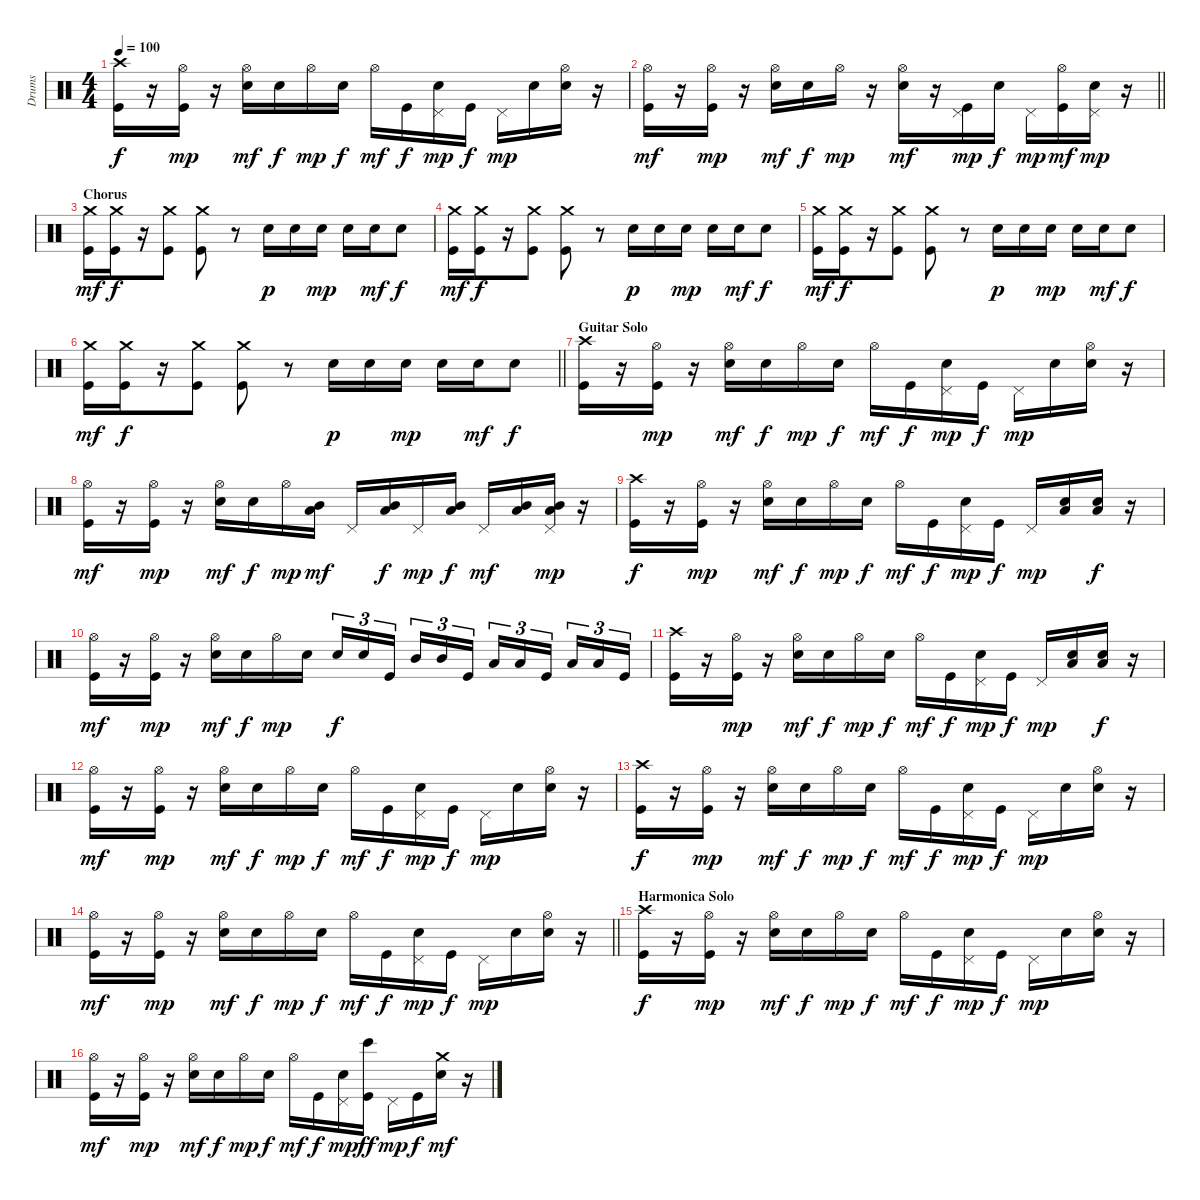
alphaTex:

\track ("Drums" "Drums") {instrument percussion}
\staff {score}
\articulation defaults
\ts (4 4)
\tempo 100
\clef neutral
\ks c
("Crash high (hit)" "Kick (hit)").16{dy f} r.16 ("Hi-Hat (open)" "Kick (hit)").16{dy mp} r.16 ("Hi-Hat (open)" "Snare (hit) 2").16{dy mf} "Snare (hit) 2".16{dy f} "Hi-Hat (open)".16{dy mp} "Snare (hit) 2".16{dy f} "Hi-Hat (open)".16{dy mf} "Kick (hit)".16{dy f} ("Pedal Hi-Hat (hit)" "Snare (hit) 2").16{dy mp} "Kick (hit)".16{dy f} "Pedal Hi-Hat (hit)".16{dy mp} "Snare (hit) 2".16 ("Hi-Hat (open)" "Snare (hit) 2").16 r.16 |
\barLineRight lightlight
("Hi-Hat (open)" "Kick (hit)").16{dy mf} r.16 ("Hi-Hat (open)" "Kick (hit)").16{dy mp} r.16 ("Hi-Hat (open)" "Snare (hit) 2").16{dy mf} "Snare (hit) 2".16{dy f} "Hi-Hat (open)".16{dy mp} r.16 ("Hi-Hat (open)" "Snare (hit) 2").16{dy mf} r.16 ("Pedal Hi-Hat (hit)" "Kick (hit)").16{dy mp} "Snare (hit) 2".16{dy f} "Pedal Hi-Hat (hit)".16{dy mp} ("Hi-Hat (open)" "Kick (hit)").16{dy mf} ("Pedal Hi-Hat (hit)" "Snare (hit) 2").16{dy mp} r.16 |
\section ("" "Chorus")
("Crash medium (hit)" "Kick (hit)").16{dy mf} ("Crash medium (hit)" "Kick (hit)").16{dy f} r.16 ("Crash medium (hit)" "Kick (hit)").8 ("Crash medium (hit)" "Kick (hit)").8 r.8 "Snare (hit) 2".16{dy p} "Snare (hit) 2".16 "Snare (hit) 2".16{dy mp} "Snare (hit) 2".16 "Snare (hit) 2".16{dy mf} "Snare (hit) 2".8{dy f} |
("Crash medium (hit)" "Kick (hit)").16{dy mf} ("Crash medium (hit)" "Kick (hit)").16{dy f} r.16 ("Crash medium (hit)" "Kick (hit)").8 ("Crash medium (hit)" "Kick (hit)").8 r.8 "Snare (hit) 2".16{dy p} "Snare (hit) 2".16 "Snare (hit) 2".16{dy mp} "Snare (hit) 2".16 "Snare (hit) 2".16{dy mf} "Snare (hit) 2".8{dy f} |
("Crash medium (hit)" "Kick (hit)").16{dy mf} ("Crash medium (hit)" "Kick (hit)").16{dy f} r.16 ("Crash medium (hit)" "Kick (hit)").8 ("Crash medium (hit)" "Kick (hit)").8 r.8 "Snare (hit) 2".16{dy p} "Snare (hit) 2".16 "Snare (hit) 2".16{dy mp} "Snare (hit) 2".16 "Snare (hit) 2".16{dy mf} "Snare (hit) 2".8{dy f} |
\barLineRight lightlight
("Crash medium (hit)" "Kick (hit)").16{dy mf} ("Crash medium (hit)" "Kick (hit)").16{dy f} r.16 ("Crash medium (hit)" "Kick (hit)").8 ("Crash medium (hit)" "Kick (hit)").8 r.8 "Snare (hit) 2".16{dy p} "Snare (hit) 2".16 "Snare (hit) 2".16{dy mp} "Snare (hit) 2".16 "Snare (hit) 2".16{dy mf} "Snare (hit) 2".8{dy f} |
\section ("" "Guitar Solo")
("Crash high (hit)" "Kick (hit)").16 r.16 ("Hi-Hat (open)" "Kick (hit)").16{dy mp} r.16 ("Hi-Hat (open)" "Snare (hit) 2").16{dy mf} "Snare (hit) 2".16{dy f} "Hi-Hat (open)".16{dy mp} "Snare (hit) 2".16{dy f} "Hi-Hat (open)".16{dy mf} "Kick (hit)".16{dy f} ("Pedal Hi-Hat (hit)" "Snare (hit) 2").16{dy mp} "Kick (hit)".16{dy f} "Pedal Hi-Hat (hit)".16{dy mp} "Snare (hit) 2".16 ("Hi-Hat (open)" "Snare (hit) 2").16 r.16 |
("Hi-Hat (open)" "Kick (hit)").16{dy mf} r.16 ("Hi-Hat (open)" "Kick (hit)").16{dy mp} r.16 ("Hi-Hat (open)" "Snare (hit) 2").16{dy mf} "Snare (hit) 2".16{dy f} "Hi-Hat (open)".16{dy mp} ("Low Tom (hit)" "Mid Tom (hit)").16{dy mf} "Pedal Hi-Hat (hit)".16 ("Low Tom (hit)" "Mid Tom (hit)").16{dy f} "Pedal Hi-Hat (hit)".16{dy mp} ("Low Tom (hit)" "Mid Tom (hit)").16{dy f} "Pedal Hi-Hat (hit)".16{dy mf} ("Low Tom (hit)" "Mid Tom (hit)").16 ("Pedal Hi-Hat (hit)" "Low Tom (hit)" "Mid Tom (hit)").16{dy mp} r.16 |
("Crash high (hit)" "Kick (hit)").16{dy f} r.16 ("Hi-Hat (open)" "Kick (hit)").16{dy mp} r.16 ("Hi-Hat (open)" "Snare (hit) 2").16{dy mf} "Snare (hit) 2".16{dy f} "Hi-Hat (open)".16{dy mp} "Snare (hit) 2".16{dy f} "Hi-Hat (open)".16{dy mf} "Kick (hit)".16{dy f} ("Pedal Hi-Hat (hit)" "Snare (hit) 2").16{dy mp} "Kick (hit)".16{dy f} "Pedal Hi-Hat (hit)".16{dy mp} ("Low Tom (hit)" "Snare (hit) 2").16 ("Low Tom (hit)" "Snare (hit) 2").16{dy f} r.16 |
("Hi-Hat (open)" "Kick (hit)").16{dy mf} r.16 ("Hi-Hat (open)" "Kick (hit)").16{dy mp} r.16 ("Hi-Hat (open)" "Snare (hit) 2").16{dy mf} "Snare (hit) 2".16{dy f} "Hi-Hat (open)".16{dy mp} "Snare (hit) 2".16 "Snare (hit) 2".16{tu (3 2) dy f} "Snare (hit) 2".16{tu (3 2)} "Kick (hit)".16{tu (3 2) beam splitsecondary} "Mid Tom (hit)".16{tu (3 2)} "Mid Tom (hit)".16{tu (3 2)} "Kick (hit)".16{tu (3 2)} "Low Tom (hit)".16{tu (3 2)} "Low Tom (hit)".16{tu (3 2)} "Kick (hit)".16{tu (3 2) beam splitsecondary} "Low Tom (hit)".16{tu (3 2)} "Low Tom (hit)".16{tu (3 2)} "Kick (hit)".16{tu (3 2)} |
("Crash high (hit)" "Kick (hit)").16 r.16 ("Hi-Hat (open)" "Kick (hit)").16{dy mp} r.16 ("Hi-Hat (open)" "Snare (hit) 2").16{dy mf} "Snare (hit) 2".16{dy f} "Hi-Hat (open)".16{dy mp} "Snare (hit) 2".16{dy f} "Hi-Hat (open)".16{dy mf} "Kick (hit)".16{dy f} ("Pedal Hi-Hat (hit)" "Snare (hit) 2").16{dy mp} "Kick (hit)".16{dy f} "Pedal Hi-Hat (hit)".16{dy mp} ("Low Tom (hit)" "Snare (hit) 2").16 ("Low Tom (hit)" "Snare (hit) 2").16{dy f} r.16 |
("Hi-Hat (open)" "Kick (hit)").16{dy mf} r.16 ("Hi-Hat (open)" "Kick (hit)").16{dy mp} r.16 ("Hi-Hat (open)" "Snare (hit) 2").16{dy mf} "Snare (hit) 2".16{dy f} "Hi-Hat (open)".16{dy mp} "Snare (hit) 2".16{dy f} "Hi-Hat (open)".16{dy mf} "Kick (hit)".16{dy f} ("Pedal Hi-Hat (hit)" "Snare (hit) 2").16{dy mp} "Kick (hit)".16{dy f} "Pedal Hi-Hat (hit)".16{dy mp} "Snare (hit) 2".16 ("Hi-Hat (open)" "Snare (hit) 2").16 r.16 |
("Crash high (hit)" "Kick (hit)").16{dy f} r.16 ("Hi-Hat (open)" "Kick (hit)").16{dy mp} r.16 ("Hi-Hat (open)" "Snare (hit) 2").16{dy mf} "Snare (hit) 2".16{dy f} "Hi-Hat (open)".16{dy mp} "Snare (hit) 2".16{dy f} "Hi-Hat (open)".16{dy mf} "Kick (hit)".16{dy f} ("Pedal Hi-Hat (hit)" "Snare (hit) 2").16{dy mp} "Kick (hit)".16{dy f} "Pedal Hi-Hat (hit)".16{dy mp} "Snare (hit) 2".16 ("Hi-Hat (open)" "Snare (hit) 2").16 r.16 |
\barLineRight lightlight
("Hi-Hat (open)" "Kick (hit)").16{dy mf} r.16 ("Hi-Hat (open)" "Kick (hit)").16{dy mp} r.16 ("Hi-Hat (open)" "Snare (hit) 2").16{dy mf} "Snare (hit) 2".16{dy f} "Hi-Hat (open)".16{dy mp} "Snare (hit) 2".16{dy f} "Hi-Hat (open)".16{dy mf} "Kick (hit)".16{dy f} ("Pedal Hi-Hat (hit)" "Snare (hit) 2").16{dy mp} "Kick (hit)".16{dy f} "Pedal Hi-Hat (hit)".16{dy mp} "Snare (hit) 2".16 ("Hi-Hat (open)" "Snare (hit) 2").16 r.16 |
\section ("" "Harmonica Solo")
("Crash high (hit)" "Kick (hit)").16{dy f} r.16 ("Hi-Hat (open)" "Kick (hit)").16{dy mp} r.16 ("Hi-Hat (open)" "Snare (hit) 2").16{dy mf} "Snare (hit) 2".16{dy f} "Hi-Hat (open)".16{dy mp} "Snare (hit) 2".16{dy f} "Hi-Hat (open)".16{dy mf} "Kick (hit)".16{dy f} ("Pedal Hi-Hat (hit)" "Snare (hit) 2").16{dy mp} "Kick (hit)".16{dy f} "Pedal Hi-Hat (hit)".16{dy mp} "Snare (hit) 2".16 ("Hi-Hat (open)" "Snare (hit) 2").16 r.16 |
("Hi-Hat (open)" "Kick (hit)").16{dy mf} r.16 ("Hi-Hat (open)" "Kick (hit)").16{dy mp} r.16 ("Hi-Hat (open)" "Snare (hit) 2").16{dy mf} "Snare (hit) 2".16{dy f} "Hi-Hat (open)".16{dy mp} "Snare (hit) 2".16{dy f} "Hi-Hat (open)".16{dy mf} "Kick (hit)".16{dy f} ("Pedal Hi-Hat (hit)" "Snare (hit) 2").16{dy mp} ("Bongo High (hit)" "Kick (hit)").16{dy ff} "Pedal Hi-Hat (hit)".16{dy mp} "Kick (hit)".16{dy f} ("Crash medium (hit)" "Snare (hit) 2").16{dy mf} r.16
